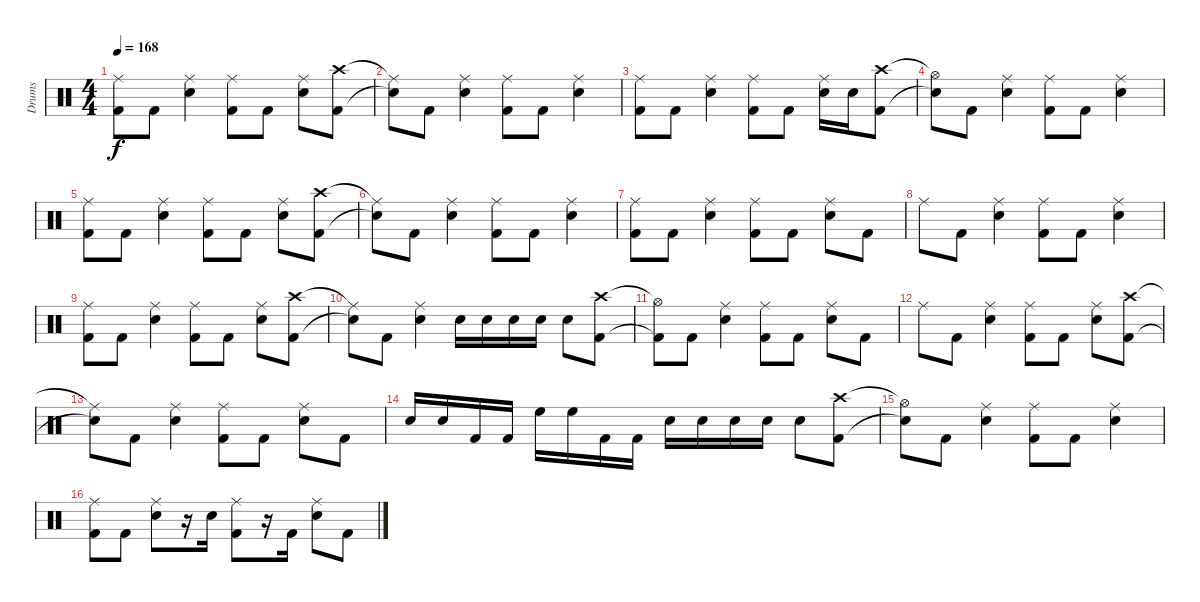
\track ("Drums" "Drums") {instrument percussion}
\staff {score}
\articulation defaults
\ts (4 4)
\tempo 168
\clef neutral
\ks c
("Ride (middle)" "Kick (hit) 2").8{dy f} "Kick (hit) 2".8 ("Ride (middle)" "Electric Snare (hit)").4 ("Ride (middle)" "Kick (hit) 2").8 "Kick (hit) 2".8 ("Ride (middle)" "Electric Snare (hit)").8 ("Crash high (hit)" "Kick (hit) 2").8 |
("Ride (middle)"{t} "Snare (hit)"{t}).8 "Kick (hit) 2".8 ("Ride (middle)" "Electric Snare (hit)").4 ("Ride (middle)" "Kick (hit) 2").8 "Kick (hit) 2".8 ("Ride (middle)" "Electric Snare (hit)").4 |
("Ride (middle)" "Kick (hit) 2").8 "Kick (hit) 2".8 ("Ride (middle)" "Electric Snare (hit)").4 ("Ride (middle)" "Kick (hit) 2").8 "Kick (hit) 2".8 ("Ride (middle)" "Electric Snare (hit)").16 "Electric Snare (hit)".16 ("Crash high (hit)" "Kick (hit) 2").8 |
("Hi-Hat (open)"{t} "Snare (hit)"{t}).8 "Kick (hit) 2".8 ("Ride (middle)" "Electric Snare (hit)").4 ("Ride (middle)" "Kick (hit) 2").8 "Kick (hit) 2".8 ("Ride (middle)" "Electric Snare (hit)").4 |
("Ride (middle)" "Kick (hit) 2").8 "Kick (hit) 2".8 ("Ride (middle)" "Electric Snare (hit)").4 ("Ride (middle)" "Kick (hit) 2").8 "Kick (hit) 2".8 ("Ride (middle)" "Electric Snare (hit)").8 ("Crash high (hit)" "Kick (hit) 2").8 |
("Ride (middle)"{t} "Snare (hit)"{t}).8 "Kick (hit) 2".8 ("Ride (middle)" "Electric Snare (hit)").4 ("Ride (middle)" "Kick (hit) 2").8 "Kick (hit) 2".8 ("Ride (middle)" "Electric Snare (hit)").4 |
("Ride (middle)" "Kick (hit) 2").8 "Kick (hit) 2".8 ("Ride (middle)" "Electric Snare (hit)").4 ("Ride (middle)" "Kick (hit) 2").8 "Kick (hit) 2".8 ("Ride (middle)" "Electric Snare (hit)").8 "Kick (hit) 2".8 |
"Ride (middle)".8 "Kick (hit) 2".8 ("Ride (middle)" "Electric Snare (hit)").4 ("Ride (middle)" "Kick (hit) 2").8 "Kick (hit) 2".8 ("Ride (middle)" "Electric Snare (hit)").4 |
("Ride (middle)" "Kick (hit) 2").8 "Kick (hit) 2".8 ("Ride (middle)" "Electric Snare (hit)").4 ("Ride (middle)" "Kick (hit) 2").8 "Kick (hit) 2".8 ("Ride (middle)" "Electric Snare (hit)").8 ("Crash high (hit)" "Kick (hit) 2").8 |
("Ride (middle)"{t} "Snare (hit)"{t}).8 "Kick (hit) 2".8 ("Ride (middle)" "Electric Snare (hit)").4 "Electric Snare (hit)".16 "Electric Snare (hit)".16 "Electric Snare (hit)".16 "Electric Snare (hit)".16 "Electric Snare (hit)".8 ("Crash high (hit)" "Kick (hit) 2").8 |
("Hi-Hat (open)"{t} "Kick (hit) 2"{t}).8 "Kick (hit) 2".8 ("Ride (middle)" "Electric Snare (hit)").4 ("Ride (middle)" "Kick (hit) 2").8 "Kick (hit) 2".8 ("Ride (middle)" "Electric Snare (hit)").8 "Kick (hit) 2".8 |
"Ride (middle)".8 "Kick (hit) 2".8 ("Ride (middle)" "Electric Snare (hit)").4 ("Ride (middle)" "Kick (hit) 2").8 "Kick (hit) 2".8 ("Ride (middle)" "Electric Snare (hit)").8 ("Crash high (hit)" "Kick (hit) 2").8 |
("Ride (middle)"{t} "Snare (hit)"{t}).8 "Kick (hit) 2".8 ("Ride (middle)" "Electric Snare (hit)").4 ("Ride (middle)" "Kick (hit) 2").8 "Kick (hit) 2".8 ("Ride (middle)" "Electric Snare (hit)").8 "Kick (hit) 2".8 |
"Electric Snare (hit)".16 "Electric Snare (hit)".16 "Kick (hit) 2".16 "Kick (hit) 2".16 "High Floor Tom (hit)".16 "High Floor Tom (hit)".16 "Kick (hit) 2".16 "Kick (hit) 2".16 "Electric Snare (hit)".16 "Electric Snare (hit)".16 "Electric Snare (hit)".16 "Electric Snare (hit)".16 "Electric Snare (hit)".8 ("Crash high (hit)" "Kick (hit) 2").8 |
("Hi-Hat (open)"{t} "Snare (hit)"{t}).8 "Kick (hit) 2".8 ("Ride (middle)" "Electric Snare (hit)").4 ("Ride (middle)" "Kick (hit) 2").8 "Kick (hit) 2".8 ("Ride (middle)" "Electric Snare (hit)").4 |
("Ride (middle)" "Kick (hit) 2").8 "Kick (hit) 2".8 ("Ride (middle)" "Electric Snare (hit)").8 r.16 "Electric Snare (hit)".16 ("Ride (middle)" "Kick (hit) 2").8 r.16 "Kick (hit) 2".16 ("Ride (middle)" "Electric Snare (hit)").8 "Kick (hit) 2".8
